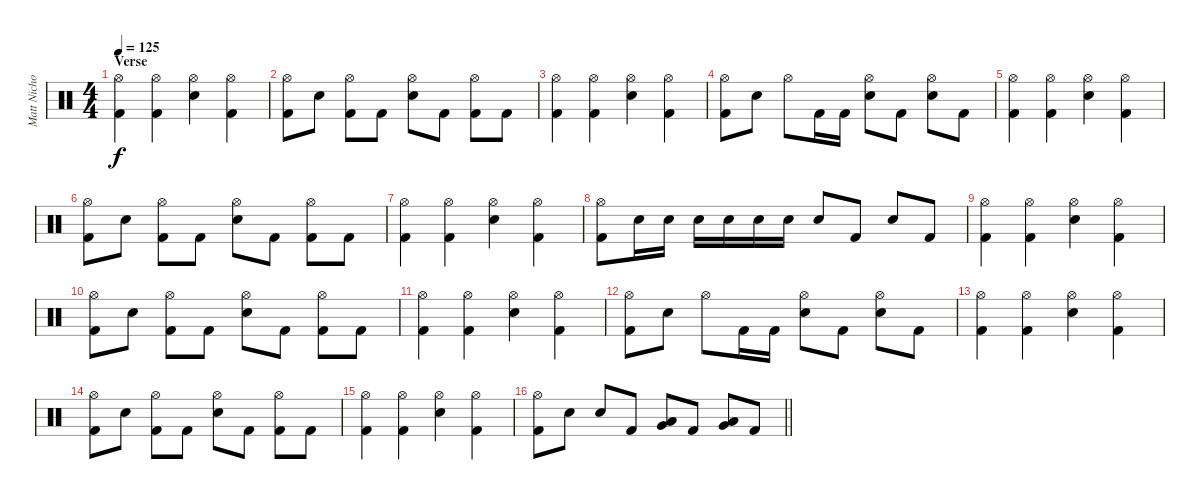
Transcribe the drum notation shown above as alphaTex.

\track ("Matt Nicholls" "Matt Nicho") {instrument percussion}
\staff {score}
\articulation defaults
\ts (4 4)
\section ("" "Verse")
\tempo 125
\clef neutral
\ks c
("Hi-Hat (open)" "Kick (hit) 2").4{dy f volume 9} ("Hi-Hat (open)" "Kick (hit) 2").4 ("Hi-Hat (open)" "Electric Snare (hit)").4 ("Hi-Hat (open)" "Kick (hit) 2").4 |
("Hi-Hat (open)" "Kick (hit) 2").8 "Electric Snare (hit)".8 ("Hi-Hat (open)" "Kick (hit) 2").8 "Kick (hit) 2".8 ("Hi-Hat (open)" "Electric Snare (hit)").8 "Kick (hit) 2".8 ("Hi-Hat (open)" "Kick (hit) 2").8 "Kick (hit) 2".8 |
("Hi-Hat (open)" "Kick (hit) 2").4 ("Hi-Hat (open)" "Kick (hit) 2").4 ("Hi-Hat (open)" "Electric Snare (hit)").4 ("Hi-Hat (open)" "Kick (hit) 2").4 |
("Hi-Hat (open)" "Kick (hit) 2").8 "Electric Snare (hit)".8 "Hi-Hat (open)".8 "Kick (hit) 2".16 "Kick (hit) 2".16 ("Hi-Hat (open)" "Electric Snare (hit)").8 "Kick (hit) 2".8 ("Hi-Hat (open)" "Electric Snare (hit)").8 "Kick (hit) 2".8 |
("Hi-Hat (open)" "Kick (hit) 2").4 ("Hi-Hat (open)" "Kick (hit) 2").4 ("Hi-Hat (open)" "Electric Snare (hit)").4 ("Hi-Hat (open)" "Kick (hit) 2").4 |
("Hi-Hat (open)" "Kick (hit) 2").8 "Electric Snare (hit)".8 ("Hi-Hat (open)" "Kick (hit) 2").8 "Kick (hit) 2".8 ("Hi-Hat (open)" "Electric Snare (hit)").8 "Kick (hit) 2".8 ("Hi-Hat (open)" "Kick (hit) 2").8 "Kick (hit) 2".8 |
("Hi-Hat (open)" "Kick (hit) 2").4 ("Hi-Hat (open)" "Kick (hit) 2").4 ("Hi-Hat (open)" "Electric Snare (hit)").4 ("Hi-Hat (open)" "Kick (hit) 2").4 |
("Hi-Hat (open)" "Kick (hit) 2").8 "Electric Snare (hit)".16 "Electric Snare (hit)".16 "Electric Snare (hit)".16 "Electric Snare (hit)".16 "Electric Snare (hit)".16 "Electric Snare (hit)".16 "Electric Snare (hit)".8 "Kick (hit) 2".8 "Electric Snare (hit)".8 "Kick (hit) 2".8 |
("Hi-Hat (open)" "Kick (hit) 2").4 ("Hi-Hat (open)" "Kick (hit) 2").4 ("Hi-Hat (open)" "Electric Snare (hit)").4 ("Hi-Hat (open)" "Kick (hit) 2").4 |
("Hi-Hat (open)" "Kick (hit) 2").8 "Electric Snare (hit)".8 ("Hi-Hat (open)" "Kick (hit) 2").8 "Kick (hit) 2".8 ("Hi-Hat (open)" "Electric Snare (hit)").8 "Kick (hit) 2".8 ("Hi-Hat (open)" "Kick (hit) 2").8 "Kick (hit) 2".8 |
("Hi-Hat (open)" "Kick (hit) 2").4 ("Hi-Hat (open)" "Kick (hit) 2").4 ("Hi-Hat (open)" "Electric Snare (hit)").4 ("Hi-Hat (open)" "Kick (hit) 2").4 |
("Hi-Hat (open)" "Kick (hit) 2").8 "Electric Snare (hit)".8 "Hi-Hat (open)".8 "Kick (hit) 2".16 "Kick (hit) 2".16 ("Hi-Hat (open)" "Electric Snare (hit)").8 "Kick (hit) 2".8 ("Hi-Hat (open)" "Electric Snare (hit)").8 "Kick (hit) 2".8 |
("Hi-Hat (open)" "Kick (hit) 2").4 ("Hi-Hat (open)" "Kick (hit) 2").4 ("Hi-Hat (open)" "Electric Snare (hit)").4 ("Hi-Hat (open)" "Kick (hit) 2").4 |
("Hi-Hat (open)" "Kick (hit) 2").8 "Electric Snare (hit)".8 ("Hi-Hat (open)" "Kick (hit) 2").8 "Kick (hit) 2".8 ("Hi-Hat (open)" "Electric Snare (hit)").8 "Kick (hit) 2".8 ("Hi-Hat (open)" "Kick (hit) 2").8 "Kick (hit) 2".8 |
("Hi-Hat (open)" "Kick (hit) 2").4 ("Hi-Hat (open)" "Kick (hit) 2").4 ("Hi-Hat (open)" "Electric Snare (hit)").4 ("Hi-Hat (open)" "Kick (hit) 2").4 |
\barLineRight lightlight
("Hi-Hat (open)" "Kick (hit) 2").8 "Electric Snare (hit)".8 "Electric Snare (hit)".8 "Kick (hit) 2".8 ("Low Tom (hit)" "Very Low Tom (hit)").8 "Kick (hit) 2".8 ("Very Low Tom (hit)" "Low Floor Tom (hit)").8 "Kick (hit) 2".8
